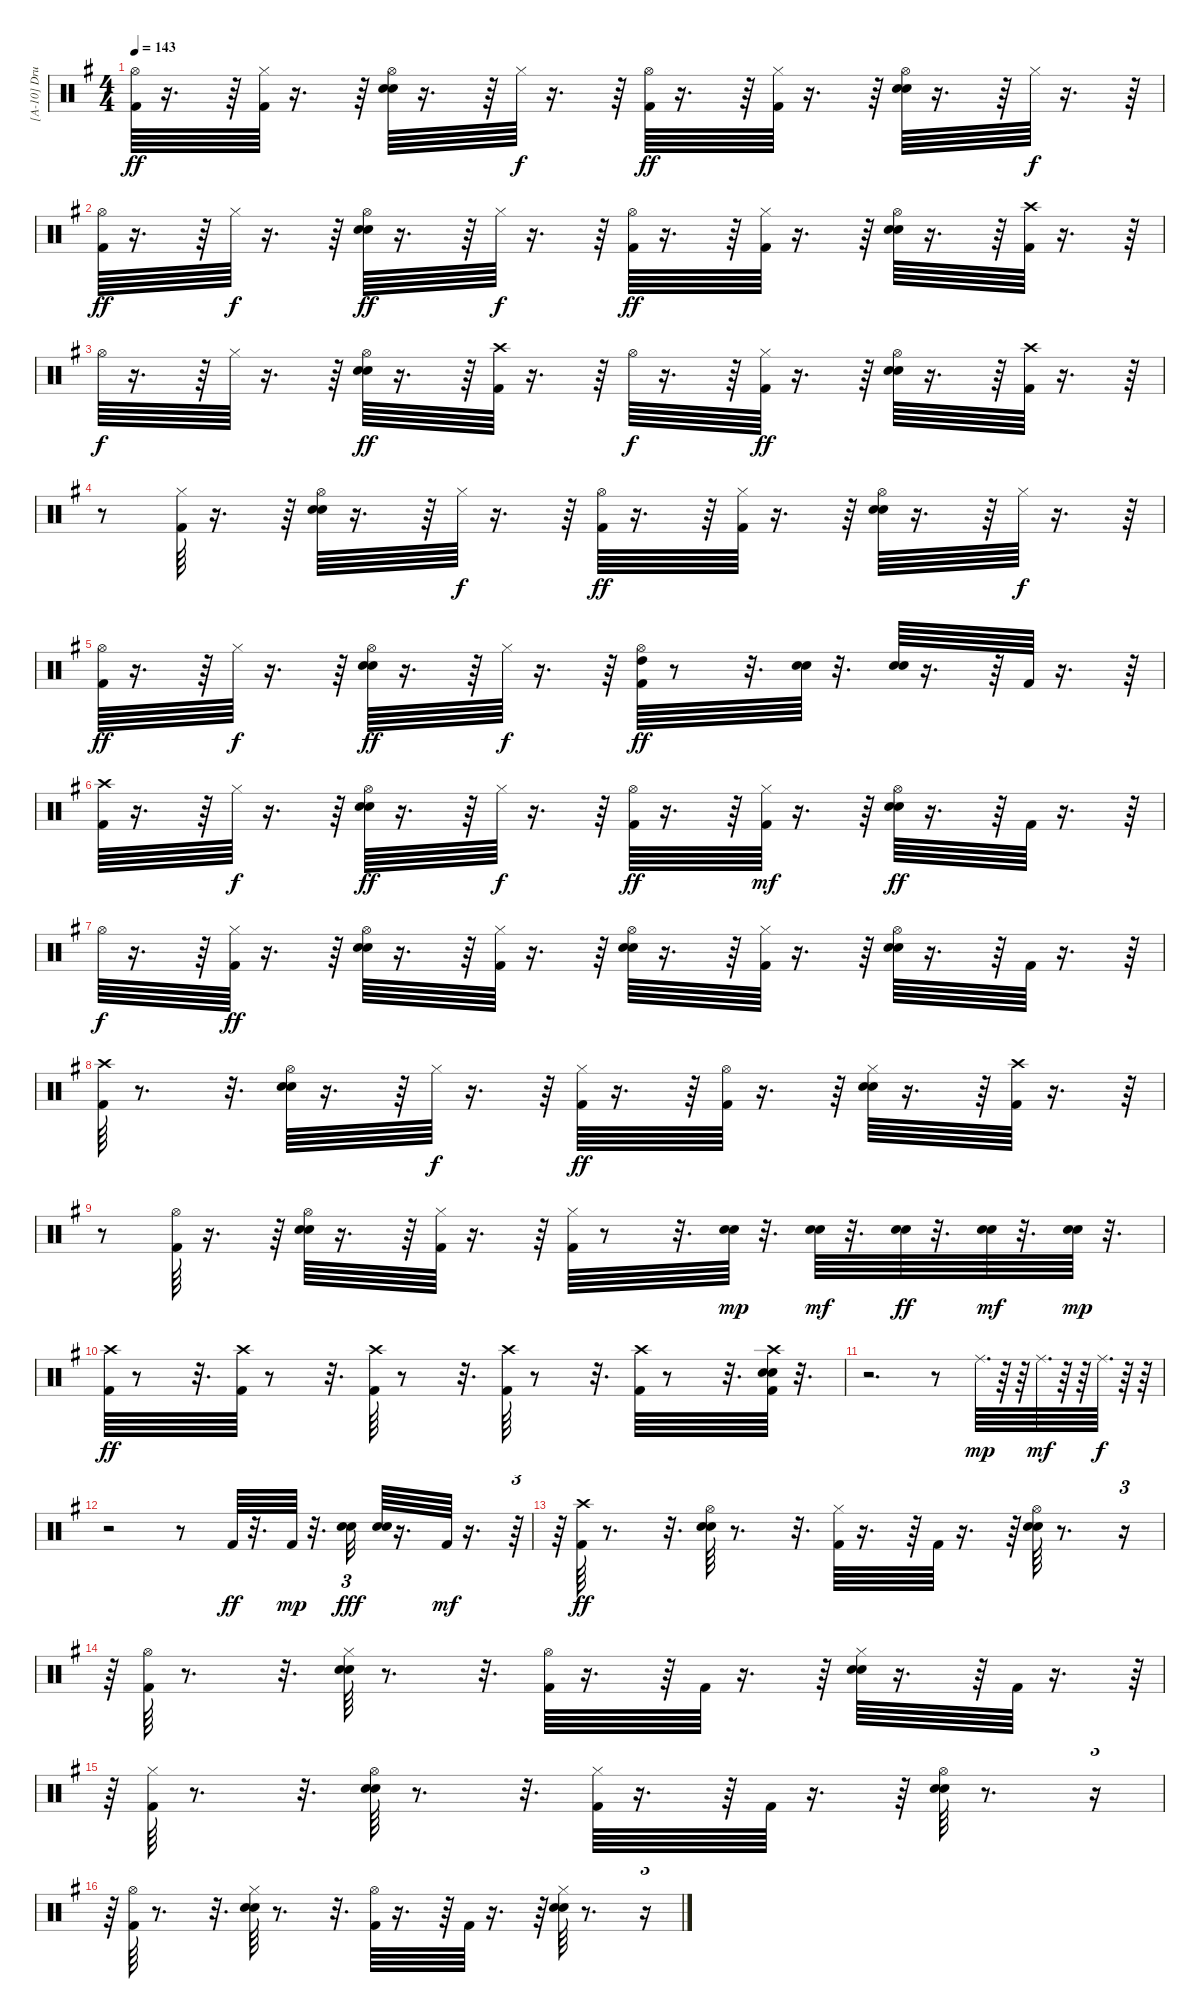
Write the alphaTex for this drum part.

\track ("[A-10] Drums" "[A-10] Dru") {instrument percussion}
\staff {score}
\articulation defaults
\ts (4 4)
\tempo 143
\clef neutral
\ks g
("Hi-Hat (open)" "Kick (hit) 2").64{dy ff} r.16{d} r.64 ("Hi-Hat (closed)" "Kick (hit) 2").64 r.16{d} r.64 ("Hi-Hat (open)" "Electric Snare (hit)" "Snare (hit) 2").64 r.16{d} r.64 "Hi-Hat (closed)".64{dy f} r.16{d} r.64 ("Hi-Hat (open)" "Kick (hit) 2").64{dy ff} r.16{d} r.64 ("Hi-Hat (closed)" "Kick (hit) 2").64 r.16{d} r.64 ("Hi-Hat (open)" "Electric Snare (hit)" "Snare (hit) 2").64 r.16{d} r.64 "Hi-Hat (closed)".64{dy f} r.16{d} r.64 |
("Hi-Hat (open)" "Kick (hit) 2").64{dy ff} r.16{d} r.64 "Hi-Hat (closed)".64{dy f} r.16{d} r.64 ("Hi-Hat (open)" "Electric Snare (hit)" "Snare (hit) 2").64{dy ff} r.16{d} r.64 "Hi-Hat (closed)".64{dy f} r.16{d} r.64 ("Hi-Hat (open)" "Kick (hit) 2").64{dy ff} r.16{d} r.64 ("Hi-Hat (closed)" "Kick (hit) 2").64 r.16{d} r.64 ("Hi-Hat (open)" "Electric Snare (hit)" "Snare (hit) 2").64 r.16{d} r.64 ("Crash high (hit)" "Kick (hit) 2").64 r.16{d} r.64 |
"Hi-Hat (open)".64{dy f} r.16{d} r.64 "Hi-Hat (closed)".64 r.16{d} r.64 ("Hi-Hat (open)" "Electric Snare (hit)" "Snare (hit) 2").64{dy ff} r.16{d} r.64 ("Crash high (hit)" "Kick (hit) 2").64 r.16{d} r.64 "Hi-Hat (open)".64{dy f} r.16{d} r.64 ("Hi-Hat (closed)" "Kick (hit) 2").64{dy ff} r.16{d} r.64 ("Hi-Hat (open)" "Electric Snare (hit)" "Snare (hit) 2").64 r.16{d} r.64 ("Crash high (hit)" "Kick (hit) 2").64 r.16{d} r.64 |
r.8 ("Hi-Hat (closed)" "Kick (hit) 2").64 r.16{d} r.64 ("Hi-Hat (open)" "Electric Snare (hit)" "Snare (hit) 2").64 r.16{d} r.64 "Hi-Hat (closed)".64{dy f} r.16{d} r.64 ("Hi-Hat (open)" "Kick (hit) 2").64{dy ff} r.16{d} r.64 ("Hi-Hat (closed)" "Kick (hit) 2").64 r.16{d} r.64 ("Hi-Hat (open)" "Electric Snare (hit)" "Snare (hit) 2").64 r.16{d} r.64 "Hi-Hat (closed)".64{dy f} r.16{d} r.64 |
("Hi-Hat (open)" "Kick (hit) 2").64{dy ff} r.16{d} r.64 "Hi-Hat (closed)".64{dy f} r.16{d} r.64 ("Hi-Hat (open)" "Electric Snare (hit)" "Snare (hit) 2").64{dy ff} r.16{d} r.64 "Hi-Hat (closed)".64{dy f} r.16{d} r.64 ("Hi-Hat (open)" "High Tom (hit)" "Kick (hit) 2").64{dy ff} r.8 r.32{d} ("Electric Snare (hit)" "Snare (hit) 2").64 r.32{d} ("Electric Snare (hit)" "Snare (hit) 2").64 r.16{d} r.64 "Kick (hit) 2".64 r.16{d} r.64 |
("Crash high (hit)" "Kick (hit) 2").64 r.16{d} r.64 "Hi-Hat (closed)".64{dy f} r.16{d} r.64 ("Hi-Hat (open)" "Electric Snare (hit)" "Snare (hit) 2").64{dy ff} r.16{d} r.64 "Hi-Hat (closed)".64{dy f} r.16{d} r.64 ("Hi-Hat (open)" "Kick (hit) 2").64{dy ff} r.16{d} r.64 ("Hi-Hat (closed)" "Kick (hit) 2").64{dy mf} r.16{d} r.64 ("Hi-Hat (open)" "Electric Snare (hit)" "Snare (hit) 2").64{dy ff} r.16{d} r.64 "Kick (hit) 2".64 r.16{d} r.64 |
"Hi-Hat (open)".64{dy f} r.16{d} r.64 ("Hi-Hat (closed)" "Kick (hit) 2").64{dy ff} r.16{d} r.64 ("Hi-Hat (open)" "Electric Snare (hit)" "Snare (hit) 2").64 r.16{d} r.64 ("Hi-Hat (closed)" "Kick (hit) 2").64 r.16{d} r.64 ("Hi-Hat (open)" "Electric Snare (hit)" "Snare (hit) 2").64 r.16{d} r.64 ("Hi-Hat (closed)" "Kick (hit) 2").64 r.16{d} r.64 ("Hi-Hat (open)" "Electric Snare (hit)" "Snare (hit) 2").64 r.16{d} r.64 "Kick (hit) 2".64 r.16{d} r.64 |
("Crash high (hit)" "Kick (hit) 2").64 r.8{d} r.32{d} ("Hi-Hat (open)" "Electric Snare (hit)" "Snare (hit) 2").64 r.16{d} r.64 "Hi-Hat (closed)".64{dy f} r.16{d} r.64 ("Hi-Hat (closed)" "Kick (hit) 2").64{dy ff} r.16{d} r.64 ("Hi-Hat (open)" "Kick (hit) 2").64 r.16{d} r.64 ("Hi-Hat (closed)" "Electric Snare (hit)" "Snare (hit) 2").64 r.16{d} r.64 ("Crash high (hit)" "Kick (hit) 2").64 r.16{d} r.64 |
r.8 ("Hi-Hat (open)" "Kick (hit) 2").64 r.16{d} r.64 ("Hi-Hat (open)" "Electric Snare (hit)" "Snare (hit) 2").64 r.16{d} r.64 ("Hi-Hat (closed)" "Kick (hit) 2").64 r.16{d} r.64 ("Hi-Hat (closed)" "Kick (hit) 2").64 r.8 r.32{d} ("Electric Snare (hit)" "Snare (hit) 2").64{dy mp} r.32{d} ("Electric Snare (hit)" "Snare (hit) 2").64{dy mf} r.32{d} ("Electric Snare (hit)" "Snare (hit) 2").64{dy ff} r.32{d} ("Electric Snare (hit)" "Snare (hit) 2").64{dy mf} r.32{d} ("Electric Snare (hit)" "Snare (hit) 2").64{dy mp} r.32{d} |
("Crash high (hit)" "Kick (hit) 2").64{dy ff} r.8 r.32{d} ("Crash high (hit)" "Kick (hit) 2").64 r.8 r.32{d} ("Crash high (hit)" "Kick (hit) 2").64 r.8 r.32{d} ("Crash high (hit)" "Kick (hit) 2").64 r.8 r.32{d} ("Crash high (hit)" "Kick (hit) 2").64 r.8 r.32{d} ("Crash high (hit)" "Electric Snare (hit)" "Snare (hit) 2" "Kick (hit) 2").64 r.32{d} |
r.2{d} r.8 "Ride (middle)".64{d dy mp} r.64 r.64 "Ride (middle)".64{d dy mf} r.64 r.64 "Ride (middle)".64{d dy f} r.64 r.64 |
r.2 r.8 "Kick (hit) 2".64{dy ff} r.32{d} "Kick (hit) 2".64{dy mp} r.32{d} ("Electric Snare (hit)" "Snare (hit) 2").32{tu (3 2) dy fff} ("Electric Snare (hit)" "Snare (hit) 2").64 r.16{d} "Kick (hit) 2".64{dy mf} r.16{d} r.64{tu (3 2)} |
r.64 ("Crash high (hit)" "Kick (hit) 2").64{dy ff} r.8{d} r.32{d} ("Hi-Hat (open)" "Electric Snare (hit)" "Snare (hit) 2").64 r.8{d} r.32{d} ("Hi-Hat (closed)" "Kick (hit) 2").64 r.16{d} r.64 "Kick (hit) 2".64 r.16{d} r.64 ("Hi-Hat (open)" "Electric Snare (hit)" "Snare (hit) 2").64 r.8{d} r.16{tu (3 2)} |
r.64 ("Hi-Hat (open)" "Kick (hit) 2").64 r.8{d} r.32{d} ("Hi-Hat (closed)" "Electric Snare (hit)" "Snare (hit) 2").64 r.8{d} r.32{d} ("Hi-Hat (open)" "Kick (hit) 2").64 r.16{d} r.64 "Kick (hit) 2".64 r.16{d} r.64 ("Hi-Hat (closed)" "Electric Snare (hit)" "Snare (hit) 2").64 r.16{d} r.64 "Kick (hit) 2".64 r.16{d} r.64{tu (3 2)} |
r.64 ("Hi-Hat (closed)" "Kick (hit) 2").64 r.8{d} r.32{d} ("Hi-Hat (open)" "Electric Snare (hit)" "Snare (hit) 2").64 r.8{d} r.32{d} ("Hi-Hat (closed)" "Kick (hit) 2").64 r.16{d} r.64 "Kick (hit) 2".64 r.16{d} r.64 ("Hi-Hat (open)" "Electric Snare (hit)" "Snare (hit) 2").64 r.8{d} r.16{tu (3 2)} |
r.64 ("Hi-Hat (open)" "Kick (hit) 2").64 r.8{d} r.32{d} ("Hi-Hat (closed)" "Electric Snare (hit)" "Snare (hit) 2").64 r.8{d} r.32{d} ("Hi-Hat (open)" "Kick (hit) 2").64 r.16{d} r.64 "Kick (hit) 2".64 r.16{d} r.64 ("Hi-Hat (closed)" "Electric Snare (hit)" "Snare (hit) 2").64 r.8{d} r.16{tu (3 2)}
